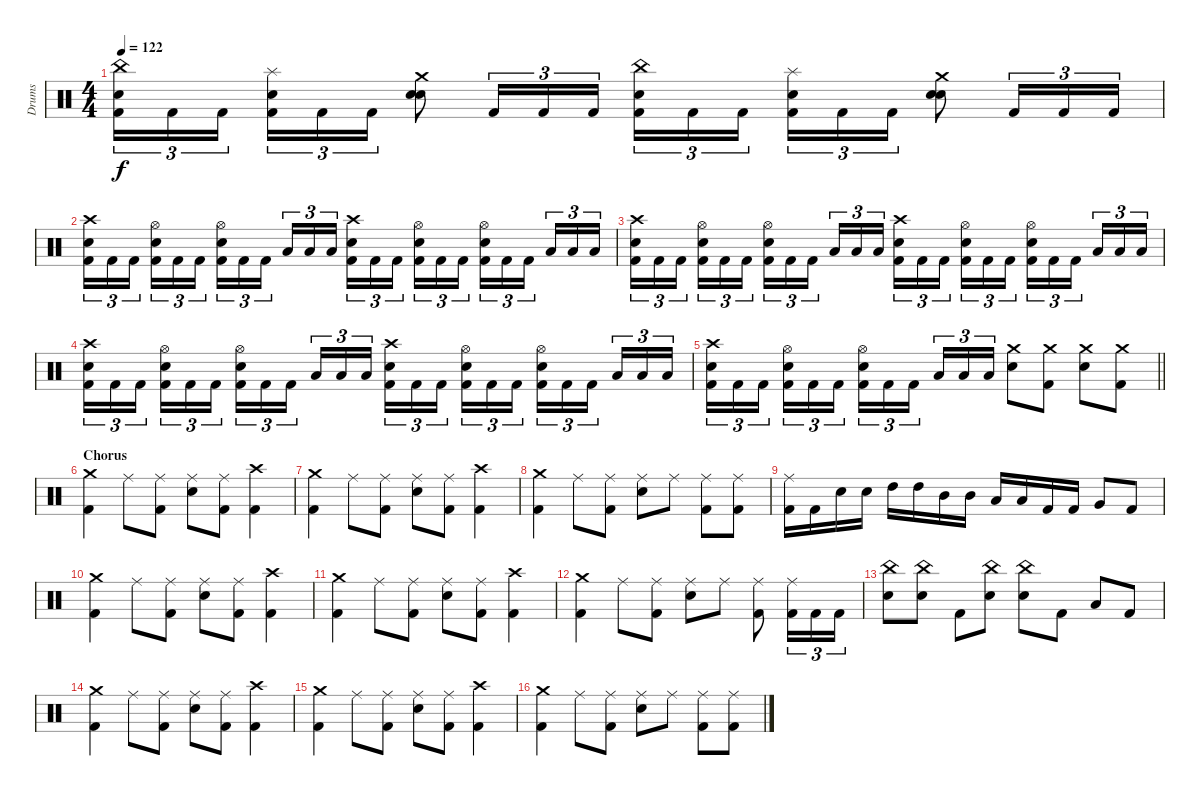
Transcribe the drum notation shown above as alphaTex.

\track ("Drums" "Drums") {instrument percussion}
\staff {score}
\articulation defaults
\ts (4 4)
\tempo 122
\clef neutral
\ks c
("China (hit)" "Electric Snare (hit)" "Kick (hit) 2").16{tu (3 2) dy f} "Kick (hit) 2".16{tu (3 2)} "Kick (hit) 2".16{tu (3 2)} ("Splash (hit)" "Electric Snare (hit)" "Kick (hit) 2").16{tu (3 2)} "Kick (hit) 2".16{tu (3 2)} "Kick (hit) 2".16{tu (3 2)} ("Crash medium (hit)" "Electric Snare (hit)" "Electric Snare (hit)").8 "Kick (hit) 2".16{tu (3 2)} "Kick (hit) 2".16{tu (3 2)} "Kick (hit) 2".16{tu (3 2)} ("China (hit)" "Electric Snare (hit)" "Kick (hit) 2").16{tu (3 2)} "Kick (hit) 2".16{tu (3 2)} "Kick (hit) 2".16{tu (3 2)} ("Splash (hit)" "Electric Snare (hit)" "Kick (hit) 2").16{tu (3 2)} "Kick (hit) 2".16{tu (3 2)} "Kick (hit) 2".16{tu (3 2)} ("Crash medium (hit)" "Electric Snare (hit)" "Electric Snare (hit)").8 "Kick (hit) 2".16{tu (3 2)} "Kick (hit) 2".16{tu (3 2)} "Kick (hit) 2".16{tu (3 2)} |
("Crash high (hit)" "Electric Snare (hit)" "Kick (hit) 2").16{tu (3 2)} "Kick (hit) 2".16{tu (3 2)} "Kick (hit) 2".16{tu (3 2)} ("Hi-Hat (open)" "Electric Snare (hit)" "Kick (hit) 2").16{tu (3 2)} "Kick (hit) 2".16{tu (3 2)} "Kick (hit) 2".16{tu (3 2)} ("Hi-Hat (open)" "Electric Snare (hit)" "Kick (hit) 2").16{tu (3 2)} "Kick (hit) 2".16{tu (3 2)} "Kick (hit) 2".16{tu (3 2)} "Low Tom (hit)".16{tu (3 2)} "Low Tom (hit)".16{tu (3 2)} "Low Tom (hit)".16{tu (3 2)} ("Crash high (hit)" "Electric Snare (hit)" "Kick (hit) 2").16{tu (3 2)} "Kick (hit) 2".16{tu (3 2)} "Kick (hit) 2".16{tu (3 2)} ("Hi-Hat (open)" "Electric Snare (hit)" "Kick (hit) 2").16{tu (3 2)} "Kick (hit) 2".16{tu (3 2)} "Kick (hit) 2".16{tu (3 2)} ("Hi-Hat (open)" "Electric Snare (hit)" "Kick (hit) 2").16{tu (3 2)} "Kick (hit) 2".16{tu (3 2)} "Kick (hit) 2".16{tu (3 2)} "Low Tom (hit)".16{tu (3 2)} "Low Tom (hit)".16{tu (3 2)} "Low Tom (hit)".16{tu (3 2)} |
("Crash high (hit)" "Electric Snare (hit)" "Kick (hit) 2").16{tu (3 2)} "Kick (hit) 2".16{tu (3 2)} "Kick (hit) 2".16{tu (3 2)} ("Hi-Hat (open)" "Electric Snare (hit)" "Kick (hit) 2").16{tu (3 2)} "Kick (hit) 2".16{tu (3 2)} "Kick (hit) 2".16{tu (3 2)} ("Hi-Hat (open)" "Electric Snare (hit)" "Kick (hit) 2").16{tu (3 2)} "Kick (hit) 2".16{tu (3 2)} "Kick (hit) 2".16{tu (3 2)} "Low Tom (hit)".16{tu (3 2)} "Low Tom (hit)".16{tu (3 2)} "Low Tom (hit)".16{tu (3 2)} ("Crash high (hit)" "Electric Snare (hit)" "Kick (hit) 2").16{tu (3 2)} "Kick (hit) 2".16{tu (3 2)} "Kick (hit) 2".16{tu (3 2)} ("Hi-Hat (open)" "Electric Snare (hit)" "Kick (hit) 2").16{tu (3 2)} "Kick (hit) 2".16{tu (3 2)} "Kick (hit) 2".16{tu (3 2)} ("Hi-Hat (open)" "Electric Snare (hit)" "Kick (hit) 2").16{tu (3 2)} "Kick (hit) 2".16{tu (3 2)} "Kick (hit) 2".16{tu (3 2)} "Low Tom (hit)".16{tu (3 2)} "Low Tom (hit)".16{tu (3 2)} "Low Tom (hit)".16{tu (3 2)} |
("Crash high (hit)" "Electric Snare (hit)" "Kick (hit) 2").16{tu (3 2)} "Kick (hit) 2".16{tu (3 2)} "Kick (hit) 2".16{tu (3 2)} ("Hi-Hat (open)" "Electric Snare (hit)" "Kick (hit) 2").16{tu (3 2)} "Kick (hit) 2".16{tu (3 2)} "Kick (hit) 2".16{tu (3 2)} ("Hi-Hat (open)" "Electric Snare (hit)" "Kick (hit) 2").16{tu (3 2)} "Kick (hit) 2".16{tu (3 2)} "Kick (hit) 2".16{tu (3 2)} "Low Tom (hit)".16{tu (3 2)} "Low Tom (hit)".16{tu (3 2)} "Low Tom (hit)".16{tu (3 2)} ("Crash high (hit)" "Electric Snare (hit)" "Kick (hit) 2").16{tu (3 2)} "Kick (hit) 2".16{tu (3 2)} "Kick (hit) 2".16{tu (3 2)} ("Hi-Hat (open)" "Electric Snare (hit)" "Kick (hit) 2").16{tu (3 2)} "Kick (hit) 2".16{tu (3 2)} "Kick (hit) 2".16{tu (3 2)} ("Hi-Hat (open)" "Electric Snare (hit)" "Kick (hit) 2").16{tu (3 2)} "Kick (hit) 2".16{tu (3 2)} "Kick (hit) 2".16{tu (3 2)} "Low Tom (hit)".16{tu (3 2)} "Low Tom (hit)".16{tu (3 2)} "Low Tom (hit)".16{tu (3 2)} |
\barLineRight lightlight
("Crash high (hit)" "Electric Snare (hit)" "Kick (hit) 2").16{tu (3 2)} "Kick (hit) 2".16{tu (3 2)} "Kick (hit) 2".16{tu (3 2)} ("Hi-Hat (open)" "Electric Snare (hit)" "Kick (hit) 2").16{tu (3 2)} "Kick (hit) 2".16{tu (3 2)} "Kick (hit) 2".16{tu (3 2)} ("Hi-Hat (open)" "Electric Snare (hit)" "Kick (hit) 2").16{tu (3 2)} "Kick (hit) 2".16{tu (3 2)} "Kick (hit) 2".16{tu (3 2)} "Low Tom (hit)".16{tu (3 2)} "Low Tom (hit)".16{tu (3 2)} "Low Tom (hit)".16{tu (3 2)} ("Crash medium (hit)" "Electric Snare (hit)").8 ("Crash medium (hit)" "Kick (hit) 2").8 ("Crash medium (hit)" "Electric Snare (hit)").8 ("Crash medium (hit)" "Kick (hit) 2").8 |
\section ("" "Chorus")
("Crash medium (hit)" "Kick (hit) 2").4 "Ride (middle)".8 ("Ride (middle)" "Kick (hit) 2").8 ("Ride (middle)" "Electric Snare (hit)").8 ("Ride (middle)" "Kick (hit) 2").8 ("Crash high (hit)" "Kick (hit) 2").4 |
("Crash medium (hit)" "Kick (hit) 2").4 "Ride (middle)".8 ("Ride (middle)" "Kick (hit) 2").8 ("Ride (middle)" "Electric Snare (hit)").8 ("Ride (middle)" "Kick (hit) 2").8 ("Crash high (hit)" "Kick (hit) 2").4 |
("Crash medium (hit)" "Kick (hit) 2").4 "Ride (middle)".8 ("Ride (middle)" "Kick (hit) 2").8 ("Ride (middle)" "Electric Snare (hit)").8 "Ride (middle)".8 ("Ride (middle)" "Kick (hit) 2").8 ("Ride (middle)" "Kick (hit) 2").8 |
("Ride (middle)" "Kick (hit) 2").16 "Kick (hit) 2".16 "Electric Snare (hit)".16 "Electric Snare (hit)".16 "High Tom (hit)".16 "High Tom (hit)".16 "Mid Tom (hit)".16 "Mid Tom (hit)".16 "Low Tom (hit)".16 "Low Tom (hit)".16 "Kick (hit) 2".16 "Kick (hit) 2".16 "Very Low Tom (hit)".8 "Kick (hit) 2".8 |
("Crash medium (hit)" "Kick (hit) 2").4 "Ride (middle)".8 ("Ride (middle)" "Kick (hit) 2").8 ("Ride (middle)" "Electric Snare (hit)").8 ("Ride (middle)" "Kick (hit) 2").8 ("Crash high (hit)" "Kick (hit) 2").4 |
("Crash medium (hit)" "Kick (hit) 2").4 "Ride (middle)".8 ("Ride (middle)" "Kick (hit) 2").8 ("Ride (middle)" "Electric Snare (hit)").8 ("Ride (middle)" "Kick (hit) 2").8 ("Crash high (hit)" "Kick (hit) 2").4 |
("Crash medium (hit)" "Kick (hit) 2").4 "Ride (middle)".8 ("Ride (middle)" "Kick (hit) 2").8 ("Ride (middle)" "Electric Snare (hit)").8 "Ride (middle)".8 ("Ride (middle)" "Kick (hit) 2").8 ("Ride (middle)" "Kick (hit) 2").16{tu (3 2)} "Kick (hit) 2".16{tu (3 2)} "Kick (hit) 2".16{tu (3 2)} |
("China (hit)" "Electric Snare (hit)").8 ("China (hit)" "Electric Snare (hit)").8 "Kick (hit) 2".8 ("China (hit)" "Electric Snare (hit)").8 ("China (hit)" "Electric Snare (hit)").8 "Kick (hit) 2".8 "Low Tom (hit)".8 "Kick (hit) 2".8 |
("Crash medium (hit)" "Kick (hit) 2").4 "Ride (middle)".8 ("Ride (middle)" "Kick (hit) 2").8 ("Ride (middle)" "Electric Snare (hit)").8 ("Ride (middle)" "Kick (hit) 2").8 ("Crash high (hit)" "Kick (hit) 2").4 |
("Crash medium (hit)" "Kick (hit) 2").4 "Ride (middle)".8 ("Ride (middle)" "Kick (hit) 2").8 ("Ride (middle)" "Electric Snare (hit)").8 ("Ride (middle)" "Kick (hit) 2").8 ("Crash high (hit)" "Kick (hit) 2").4 |
("Crash medium (hit)" "Kick (hit) 2").4 "Ride (middle)".8 ("Ride (middle)" "Kick (hit) 2").8 ("Ride (middle)" "Electric Snare (hit)").8 "Ride (middle)".8 ("Ride (middle)" "Kick (hit) 2").8 ("Ride (middle)" "Kick (hit) 2").8
